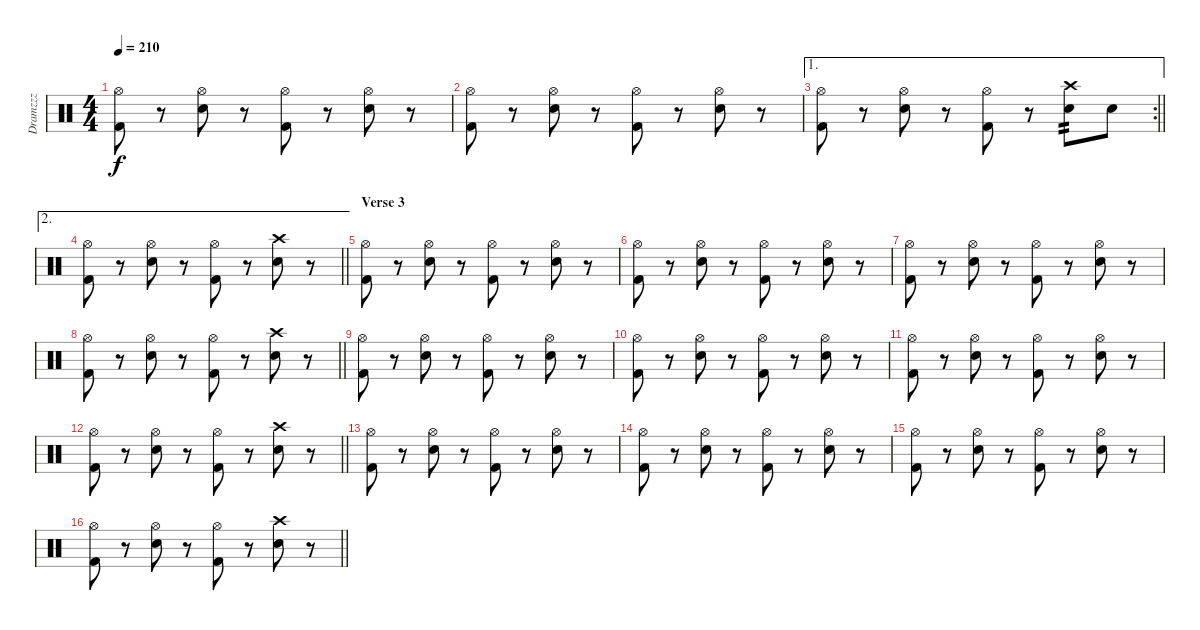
\track ("Dramzzz" "Dramzzz") {instrument percussion}
\staff {score}
\articulation defaults
\ts (4 4)
\tempo 210
\clef neutral
\ks c
("Hi-Hat (open)" "Kick (hit) 2").8{dy f} r.8 ("Hi-Hat (open)" "Electric Snare (hit)").8 r.8 ("Hi-Hat (open)" "Kick (hit) 2").8 r.8 ("Hi-Hat (open)" "Electric Snare (hit)").8 r.8 |
("Hi-Hat (open)" "Kick (hit) 2").8 r.8 ("Hi-Hat (open)" "Electric Snare (hit)").8 r.8 ("Hi-Hat (open)" "Kick (hit) 2").8 r.8 ("Hi-Hat (open)" "Electric Snare (hit)").8 r.8 |
\ae 1
\rc 2
\barLineRight lightlight
("Hi-Hat (open)" "Kick (hit) 2").8 r.8 ("Hi-Hat (open)" "Electric Snare (hit)").8 r.8 ("Hi-Hat (open)" "Kick (hit) 2").8 r.8 ("Crash high (hit)" "Electric Snare (hit)").8{tp 2} "Electric Snare (hit)".8 |
\ae 2
\barLineRight lightlight
("Hi-Hat (open)" "Kick (hit) 2").8 r.8 ("Hi-Hat (open)" "Electric Snare (hit)").8 r.8 ("Hi-Hat (open)" "Kick (hit) 2").8 r.8 ("Crash high (hit)" "Electric Snare (hit)").8 r.8 |
\section ("" "Verse 3")
("Hi-Hat (open)" "Kick (hit) 2").8 r.8 ("Hi-Hat (open)" "Electric Snare (hit)").8 r.8 ("Hi-Hat (open)" "Kick (hit) 2").8 r.8 ("Hi-Hat (open)" "Electric Snare (hit)").8 r.8 |
("Hi-Hat (open)" "Kick (hit) 2").8 r.8 ("Hi-Hat (open)" "Electric Snare (hit)").8 r.8 ("Hi-Hat (open)" "Kick (hit) 2").8 r.8 ("Hi-Hat (open)" "Electric Snare (hit)").8 r.8 |
("Hi-Hat (open)" "Kick (hit) 2").8 r.8 ("Hi-Hat (open)" "Electric Snare (hit)").8 r.8 ("Hi-Hat (open)" "Kick (hit) 2").8 r.8 ("Hi-Hat (open)" "Electric Snare (hit)").8 r.8 |
\barLineRight lightlight
("Hi-Hat (open)" "Kick (hit) 2").8 r.8 ("Hi-Hat (open)" "Electric Snare (hit)").8 r.8 ("Hi-Hat (open)" "Kick (hit) 2").8 r.8 ("Crash high (hit)" "Electric Snare (hit)").8 r.8 |
("Hi-Hat (open)" "Kick (hit) 2").8 r.8 ("Hi-Hat (open)" "Electric Snare (hit)").8 r.8 ("Hi-Hat (open)" "Kick (hit) 2").8 r.8 ("Hi-Hat (open)" "Electric Snare (hit)").8 r.8 |
("Hi-Hat (open)" "Kick (hit) 2").8 r.8 ("Hi-Hat (open)" "Electric Snare (hit)").8 r.8 ("Hi-Hat (open)" "Kick (hit) 2").8 r.8 ("Hi-Hat (open)" "Electric Snare (hit)").8 r.8 |
("Hi-Hat (open)" "Kick (hit) 2").8 r.8 ("Hi-Hat (open)" "Electric Snare (hit)").8 r.8 ("Hi-Hat (open)" "Kick (hit) 2").8 r.8 ("Hi-Hat (open)" "Electric Snare (hit)").8 r.8 |
\barLineRight lightlight
("Hi-Hat (open)" "Kick (hit) 2").8 r.8 ("Hi-Hat (open)" "Electric Snare (hit)").8 r.8 ("Hi-Hat (open)" "Kick (hit) 2").8 r.8 ("Crash high (hit)" "Electric Snare (hit)").8 r.8 |
("Hi-Hat (open)" "Kick (hit) 2").8 r.8 ("Hi-Hat (open)" "Electric Snare (hit)").8 r.8 ("Hi-Hat (open)" "Kick (hit) 2").8 r.8 ("Hi-Hat (open)" "Electric Snare (hit)").8 r.8 |
("Hi-Hat (open)" "Kick (hit) 2").8 r.8 ("Hi-Hat (open)" "Electric Snare (hit)").8 r.8 ("Hi-Hat (open)" "Kick (hit) 2").8 r.8 ("Hi-Hat (open)" "Electric Snare (hit)").8 r.8 |
("Hi-Hat (open)" "Kick (hit) 2").8 r.8 ("Hi-Hat (open)" "Electric Snare (hit)").8 r.8 ("Hi-Hat (open)" "Kick (hit) 2").8 r.8 ("Hi-Hat (open)" "Electric Snare (hit)").8 r.8 |
\barLineRight lightlight
("Hi-Hat (open)" "Kick (hit) 2").8 r.8 ("Hi-Hat (open)" "Electric Snare (hit)").8 r.8 ("Hi-Hat (open)" "Kick (hit) 2").8 r.8 ("Crash high (hit)" "Electric Snare (hit)").8 r.8
